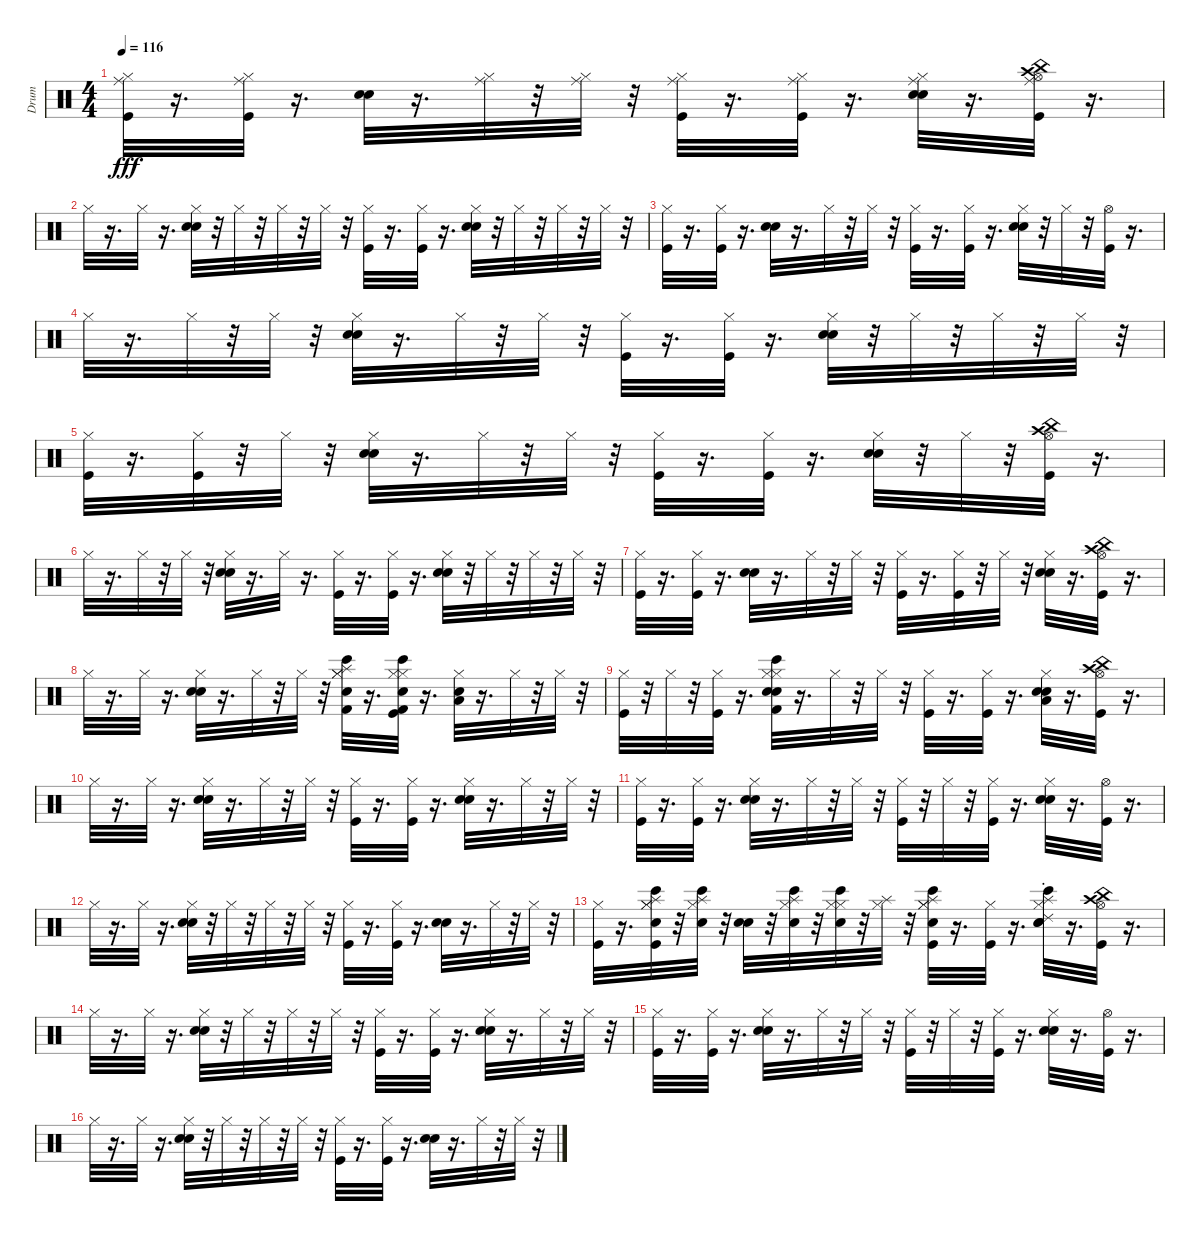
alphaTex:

\track ("Drum" "Drum") {instrument percussion}
\staff {score}
\articulation defaults
\ts (4 4)
\tempo 116
\clef neutral
\ks c
("Ride (middle)" "Hi-Hat (closed)" "Kick (hit)").32{dy fff} r.16{d} ("Ride (middle)" "Hi-Hat (closed)" "Kick (hit)").32 r.16{d} ("Snare (hit) 2" "Electric Snare (hit)").32 r.16{d} ("Ride (middle)" "Hi-Hat (closed)").32 r.32 ("Ride (middle)" "Hi-Hat (closed)").32 r.32 ("Ride (middle)" "Hi-Hat (closed)" "Kick (hit)").32 r.16{d} ("Ride (middle)" "Hi-Hat (closed)" "Kick (hit)").32 r.16{d} ("Ride (middle)" "Hi-Hat (closed)" "Snare (hit) 2" "Electric Snare (hit)").32 r.16{d} ("Ride (middle)" "Hi-Hat (open)" "Crash high (hit)" "China (hit)" "Kick (hit)").32 r.16{d} |
"Hi-Hat (closed)".32 r.16{d} "Hi-Hat (closed)".32 r.16{d} ("Snare (hit) 2" "Electric Snare (hit)" "Hi-Hat (closed)").32 r.32 "Hi-Hat (closed)".32 r.32 "Hi-Hat (closed)".32 r.32 "Hi-Hat (closed)".32 r.32 ("Hi-Hat (closed)" "Kick (hit)").32 r.16{d} ("Kick (hit)" "Hi-Hat (closed)").32 r.16{d} ("Snare (hit) 2" "Electric Snare (hit)" "Hi-Hat (closed)").32 r.32 "Hi-Hat (closed)".32 r.32 "Hi-Hat (closed)".32 r.32 "Hi-Hat (closed)".32 r.32 |
("Hi-Hat (closed)" "Kick (hit)").32 r.16{d} ("Hi-Hat (closed)" "Kick (hit)").32 r.16{d} ("Snare (hit) 2" "Electric Snare (hit)").32 r.16{d} "Hi-Hat (closed)".32 r.32 "Hi-Hat (closed)".32 r.32 ("Hi-Hat (closed)" "Kick (hit)").32 r.16{d} ("Kick (hit)" "Hi-Hat (closed)").32 r.16{d} ("Snare (hit) 2" "Electric Snare (hit)" "Hi-Hat (closed)").32 r.32 "Hi-Hat (closed)".32 r.32 ("Kick (hit)" "Hi-Hat (open)").32 r.16{d} |
"Hi-Hat (closed)".32 r.16{d} "Hi-Hat (closed)".32 r.32 "Hi-Hat (closed)".32 r.32 ("Snare (hit) 2" "Electric Snare (hit)" "Hi-Hat (closed)").32 r.16{d} "Hi-Hat (closed)".32 r.32 "Hi-Hat (closed)".32 r.32 ("Hi-Hat (closed)" "Kick (hit)").32 r.16{d} ("Hi-Hat (closed)" "Kick (hit)").32 r.16{d} ("Hi-Hat (closed)" "Snare (hit) 2" "Electric Snare (hit)").32 r.32 "Hi-Hat (closed)".32 r.32 "Hi-Hat (closed)".32 r.32 "Hi-Hat (closed)".32 r.32 |
("Hi-Hat (closed)" "Kick (hit)").32 r.16{d} ("Hi-Hat (closed)" "Kick (hit)").32 r.32 "Hi-Hat (closed)".32 r.32 ("Hi-Hat (closed)" "Snare (hit) 2" "Electric Snare (hit)").32 r.16{d} "Hi-Hat (closed)".32 r.32 "Hi-Hat (closed)".32 r.32 ("Kick (hit)" "Hi-Hat (closed)").32 r.16{d} ("Kick (hit)" "Hi-Hat (closed)").32 r.16{d} ("Snare (hit) 2" "Electric Snare (hit)" "Hi-Hat (closed)").32 r.32 "Hi-Hat (closed)".32 r.32 ("Crash high (hit)" "China (hit)" "Kick (hit)" "Hi-Hat (open)").32 r.16{d} |
"Hi-Hat (closed)".32 r.16{d} "Hi-Hat (closed)".32 r.32 "Hi-Hat (closed)".32 r.32 ("Snare (hit) 2" "Electric Snare (hit)" "Hi-Hat (closed)").32 r.16{d} "Hi-Hat (closed)".32 r.16{d} ("Hi-Hat (closed)" "Kick (hit)").32 r.16{d} ("Hi-Hat (closed)" "Kick (hit)").32 r.16{d} ("Hi-Hat (closed)" "Snare (hit) 2" "Electric Snare (hit)").32 r.32 "Hi-Hat (closed)".32 r.32 "Hi-Hat (closed)".32 r.32 "Hi-Hat (closed)".32 r.32 |
("Hi-Hat (closed)" "Kick (hit)").32 r.16{d} ("Hi-Hat (closed)" "Kick (hit)").32 r.16{d} ("Snare (hit) 2" "Electric Snare (hit)").32 r.16{d} "Hi-Hat (closed)".32 r.32 "Hi-Hat (closed)".32 r.32 ("Kick (hit)" "Hi-Hat (closed)").32 r.16{d} ("Kick (hit)" "Hi-Hat (closed)").32 r.32 "Hi-Hat (closed)".32 r.32 ("Snare (hit) 2" "Electric Snare (hit)" "Hi-Hat (closed)").32 r.16{d} ("Kick (hit)" "Crash high (hit)" "China (hit)" "Hi-Hat (open)").32 r.16{d} |
"Hi-Hat (closed)".32 r.16{d} "Hi-Hat (closed)".32 r.16{d} ("Snare (hit) 2" "Electric Snare (hit)" "Hi-Hat (closed)").32 r.16{d} "Hi-Hat (closed)".32 r.32 "Hi-Hat (closed)".32 r.32 ("Hi-Hat (closed)" "Bongo High (hit)" "Snare (hit) 2" "Kick (hit) 2" "Splash (hit)" "Hi-Hat (closed)").32 r.16{d} ("Hi-Hat (closed)" "Hi-Hat (closed)" "Kick (hit)" "Bongo High (hit)" "Snare (hit) 2" "Kick (hit) 2").32 r.16{d} ("Snare (hit) 2" "Low Floor Tom (hit)" "Hi-Hat (closed)").32 r.16{d} "Hi-Hat (closed)".32 r.32 "Hi-Hat (closed)".32 r.32 |
("Kick (hit)" "Hi-Hat (closed)").32 r.32 "Hi-Hat (closed)".32 r.32 ("Hi-Hat (closed)" "Kick (hit)").32 r.16{d} ("Electric Snare (hit)" "Hi-Hat (closed)" "Bongo High (hit)" "Snare (hit) 2" "Kick (hit) 2" "Hi-Hat (closed)").32 r.16{d} "Hi-Hat (closed)".32 r.32 "Hi-Hat (closed)".32 r.32 ("Kick (hit)" "Hi-Hat (closed)").32 r.16{d} ("Kick (hit)" "Hi-Hat (closed)").32 r.16{d} ("Snare (hit) 2" "Electric Snare (hit)" "Hi-Hat (closed)" "Low Floor Tom (hit)").32 r.16{d} ("Crash high (hit)" "China (hit)" "Hi-Hat (open)" "Kick (hit)").32 r.16{d} |
"Hi-Hat (closed)".32 r.16{d} "Hi-Hat (closed)".32 r.16{d} ("Snare (hit) 2" "Electric Snare (hit)" "Hi-Hat (closed)").32 r.16{d} "Hi-Hat (closed)".32 r.32 "Hi-Hat (closed)".32 r.32 ("Hi-Hat (closed)" "Kick (hit)").32 r.16{d} ("Hi-Hat (closed)" "Kick (hit)").32 r.16{d} ("Snare (hit) 2" "Electric Snare (hit)" "Hi-Hat (closed)").32 r.16{d} "Hi-Hat (closed)".32 r.32 "Hi-Hat (closed)".32 r.32 |
("Hi-Hat (closed)" "Kick (hit)").32 r.16{d} ("Hi-Hat (closed)" "Kick (hit)").32 r.16{d} ("Hi-Hat (closed)" "Snare (hit) 2" "Electric Snare (hit)").32 r.16{d} "Hi-Hat (closed)".32 r.32 "Hi-Hat (closed)".32 r.32 ("Hi-Hat (closed)" "Kick (hit)").32 r.32 "Hi-Hat (closed)".32 r.32 ("Hi-Hat (closed)" "Kick (hit)").32 r.16{d} ("Snare (hit) 2" "Electric Snare (hit)" "Hi-Hat (closed)").32 r.16{d} ("Hi-Hat (open)" "Kick (hit)").32 r.16{d} |
"Hi-Hat (closed)".32 r.16{d} "Hi-Hat (closed)".32 r.16{d} ("Snare (hit) 2" "Electric Snare (hit)" "Hi-Hat (closed)").32 r.32 "Hi-Hat (closed)".32 r.32 "Hi-Hat (closed)".32 r.32 "Hi-Hat (closed)".32 r.32 ("Hi-Hat (closed)" "Kick (hit)").32 r.16{d} ("Hi-Hat (closed)" "Kick (hit)").32 r.16{d} ("Snare (hit) 2" "Electric Snare (hit)").32 r.16{d} "Hi-Hat (closed)".32 r.32 "Hi-Hat (closed)".32 r.32 |
("Hi-Hat (closed)" "Kick (hit)").32 r.16{d} ("Hi-Hat (closed)" "Snare (hit) 2" "Bongo High (hit)" "Splash (hit)" "Hi-Hat (closed)" "Kick (hit)").32 r.32 ("Snare (hit) 2" "Hi-Hat (closed)" "Bongo High (hit)" "Splash (hit)").32 r.32 ("Snare (hit) 2" "Electric Snare (hit)").32 r.32 ("Hi-Hat (closed)" "Bongo High (hit)" "Snare (hit) 2" "Splash (hit)").32 r.32 ("Hi-Hat (closed)" "Snare (hit) 2" "Bongo High (hit)" "Hi-Hat (closed)").32 r.32 ("Splash (hit)" "Hi-Hat (closed)").32 r.32 ("Hi-Hat (closed)" "Bongo High (hit)" "Snare (hit) 2" "Hi-Hat (closed)" "Splash (hit)" "Kick (hit)").32 r.16{d} ("Kick (hit)" "Hi-Hat (closed)").32 r.16{d} ("Snare (hit) 2" "Electric Snare (hit)" "Hi-Hat (closed)" "Bongo High (hit)" "Ride (choke) 2" "Splash (hit)").32 r.16{d} ("Crash high (hit)" "China (hit)" "Hi-Hat (open)" "Kick (hit)").32 r.16{d} |
"Hi-Hat (closed)".32 r.16{d} "Hi-Hat (closed)".32 r.16{d} ("Snare (hit) 2" "Electric Snare (hit)" "Hi-Hat (closed)").32 r.32 "Hi-Hat (closed)".32 r.32 "Hi-Hat (closed)".32 r.32 "Hi-Hat (closed)".32 r.32 ("Hi-Hat (closed)" "Kick (hit)").32 r.16{d} ("Hi-Hat (closed)" "Kick (hit)").32 r.16{d} ("Snare (hit) 2" "Electric Snare (hit)" "Hi-Hat (closed)").32 r.16{d} "Hi-Hat (closed)".32 r.32 "Hi-Hat (closed)".32 r.32 |
("Hi-Hat (closed)" "Kick (hit)").32 r.16{d} ("Hi-Hat (closed)" "Kick (hit)").32 r.16{d} ("Hi-Hat (closed)" "Snare (hit) 2" "Electric Snare (hit)").32 r.16{d} "Hi-Hat (closed)".32 r.32 "Hi-Hat (closed)".32 r.32 ("Hi-Hat (closed)" "Kick (hit)").32 r.32 "Hi-Hat (closed)".32 r.32 ("Hi-Hat (closed)" "Kick (hit)").32 r.16{d} ("Hi-Hat (closed)" "Snare (hit) 2" "Electric Snare (hit)").32 r.16{d} ("Hi-Hat (open)" "Kick (hit)").32 r.16{d} |
"Hi-Hat (closed)".32 r.16{d} "Hi-Hat (closed)".32 r.16{d} ("Snare (hit) 2" "Electric Snare (hit)" "Hi-Hat (closed)").32 r.32 "Hi-Hat (closed)".32 r.32 "Hi-Hat (closed)".32 r.32 "Hi-Hat (closed)".32 r.32 ("Hi-Hat (closed)" "Kick (hit)").32 r.16{d} ("Hi-Hat (closed)" "Kick (hit)").32 r.16{d} ("Snare (hit) 2" "Electric Snare (hit)").32 r.16{d} "Hi-Hat (closed)".32 r.32 "Hi-Hat (closed)".32 r.32
